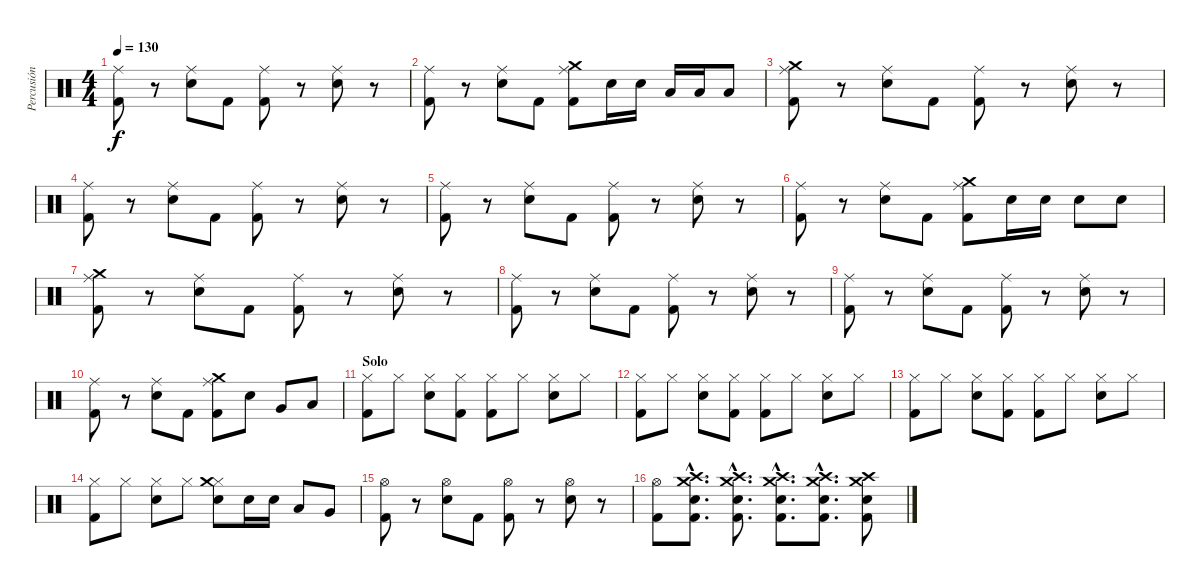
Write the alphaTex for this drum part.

\track ("Percusión" "Percusión") {instrument percussion}
\staff {score}
\articulation defaults
\ts (4 4)
\tempo 130
\clef neutral
\ks c
("Ride (middle)" "Kick (hit) 2").8{dy f} r.8 ("Ride (middle)" "Electric Snare (hit)").8 "Kick (hit) 2".8 ("Ride (middle)" "Kick (hit) 2").8 r.8 ("Ride (middle)" "Electric Snare (hit)").8 r.8 |
("Ride (middle)" "Kick (hit) 2").8 r.8 ("Ride (middle)" "Electric Snare (hit)").8 "Kick (hit) 2".8 ("Crash medium (hit)" "Ride (middle)" "Kick (hit) 2").8 "Electric Snare (hit)".16 "Electric Snare (hit)".16 "Low Tom (hit)".16 "Low Tom (hit)".16 "Low Floor Tom (hit)".8 |
("Crash medium (hit)" "Ride (middle)" "Kick (hit) 2").8 r.8 ("Ride (middle)" "Electric Snare (hit)").8 "Kick (hit) 2".8 ("Ride (middle)" "Kick (hit) 2").8 r.8 ("Ride (middle)" "Electric Snare (hit)").8 r.8 |
("Ride (middle)" "Kick (hit) 2").8 r.8 ("Ride (middle)" "Electric Snare (hit)").8 "Kick (hit) 2".8 ("Ride (middle)" "Kick (hit) 2").8 r.8 ("Ride (middle)" "Electric Snare (hit)").8 r.8 |
("Ride (middle)" "Kick (hit) 2").8 r.8 ("Ride (middle)" "Electric Snare (hit)").8 "Kick (hit) 2".8 ("Ride (middle)" "Kick (hit) 2").8 r.8 ("Ride (middle)" "Electric Snare (hit)").8 r.8 |
("Ride (middle)" "Kick (hit) 2").8 r.8 ("Ride (middle)" "Electric Snare (hit)").8 "Kick (hit) 2".8 ("Crash medium (hit)" "Ride (middle)" "Kick (hit) 2").8 "Electric Snare (hit)".16 "Electric Snare (hit)".16 "Electric Snare (hit)".8 "Electric Snare (hit)".8 |
("Crash medium (hit)" "Ride (middle)" "Kick (hit) 2").8 r.8 ("Ride (middle)" "Electric Snare (hit)").8 "Kick (hit) 2".8 ("Ride (middle)" "Kick (hit) 2").8 r.8 ("Ride (middle)" "Electric Snare (hit)").8 r.8 |
("Ride (middle)" "Kick (hit) 2").8 r.8 ("Ride (middle)" "Electric Snare (hit)").8 "Kick (hit) 2".8 ("Ride (middle)" "Kick (hit) 2").8 r.8 ("Ride (middle)" "Electric Snare (hit)").8 r.8 |
("Ride (middle)" "Kick (hit) 2").8 r.8 ("Ride (middle)" "Electric Snare (hit)").8 "Kick (hit) 2".8 ("Ride (middle)" "Kick (hit) 2").8 r.8 ("Ride (middle)" "Electric Snare (hit)").8 r.8 |
("Ride (middle)" "Kick (hit) 2").8 r.8 ("Ride (middle)" "Electric Snare (hit)").8 "Kick (hit) 2".8 ("Crash medium (hit)" "Ride (middle)" "Kick (hit) 2").8 "Electric Snare (hit)".8 "Very Low Tom (hit)".8 "Low Floor Tom (hit)".8 |
\section ("" "Solo")
("Hi-Hat (closed)" "Kick (hit) 2").8 "Hi-Hat (closed)".8 ("Hi-Hat (closed)" "Electric Snare (hit)").8 ("Hi-Hat (closed)" "Kick (hit) 2").8 ("Hi-Hat (closed)" "Kick (hit) 2").8 "Hi-Hat (closed)".8 ("Hi-Hat (closed)" "Electric Snare (hit)").8 "Hi-Hat (closed)".8 |
("Hi-Hat (closed)" "Kick (hit) 2").8 "Hi-Hat (closed)".8 ("Hi-Hat (closed)" "Electric Snare (hit)").8 ("Hi-Hat (closed)" "Kick (hit) 2").8 ("Hi-Hat (closed)" "Kick (hit) 2").8 "Hi-Hat (closed)".8 ("Hi-Hat (closed)" "Electric Snare (hit)").8 "Hi-Hat (closed)".8 |
("Hi-Hat (closed)" "Kick (hit) 2").8 "Hi-Hat (closed)".8 ("Hi-Hat (closed)" "Electric Snare (hit)").8 ("Hi-Hat (closed)" "Kick (hit) 2").8 ("Hi-Hat (closed)" "Kick (hit) 2").8 "Hi-Hat (closed)".8 ("Hi-Hat (closed)" "Electric Snare (hit)").8 "Hi-Hat (closed)".8 |
("Hi-Hat (closed)" "Kick (hit) 2").8 "Hi-Hat (closed)".8 ("Hi-Hat (closed)" "Electric Snare (hit)").8 "Hi-Hat (closed)".8 ("Hi-Hat (closed)" "Crash medium (hit)" "Electric Snare (hit)").8 "Electric Snare (hit)".16 "Electric Snare (hit)".16 "Low Tom (hit)".8 "Very Low Tom (hit)".8 |
("Hi-Hat (open)" "Kick (hit) 2").8 r.8 ("Hi-Hat (open)" "Electric Snare (hit)").8 "Kick (hit) 2".8 ("Hi-Hat (open)" "Kick (hit) 2").8 r.8 ("Hi-Hat (open)" "Electric Snare (hit)").8 r.8 |
("Hi-Hat (open)" "Kick (hit) 2").8 ("Electric Snare (hit)"{hac} "Crash medium (hit)"{hac} "Kick (hit) 2"{hac} "Crash high (hit)"{hac}).8{d} ("Electric Snare (hit)"{hac} "Crash medium (hit)"{hac} "Kick (hit) 2"{hac} "Crash high (hit)"{hac}).8{d} ("Electric Snare (hit)"{hac} "Crash medium (hit)"{hac} "Kick (hit) 2"{hac} "Crash high (hit)"{hac}).8{d} ("Electric Snare (hit)"{hac} "Crash medium (hit)"{hac} "Kick (hit) 2"{hac} "Crash high (hit)"{hac}).8{d} ("Electric Snare (hit)" "Crash medium (hit)" "Kick (hit) 2" "Crash high (hit)").8
